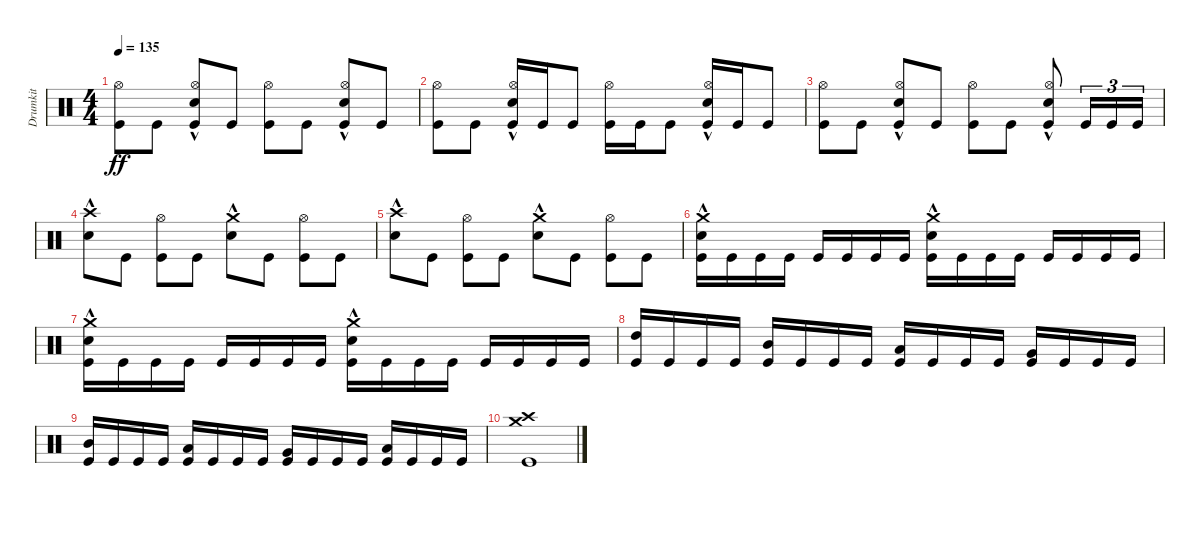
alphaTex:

\track ("Drumkit" "Drumkit") {instrument percussion}
\staff {score}
\articulation defaults
\ts (4 4)
\tempo 135
\clef neutral
\ks c
("Kick (hit)" "Hi-Hat (open)").8{dy ff} "Kick (hit)".8 ("Kick (hit)" "Hi-Hat (open)" "Snare (hit) 2"{hac}).8 "Kick (hit)".8 ("Kick (hit)" "Hi-Hat (open)").8 "Kick (hit)".8 ("Kick (hit)" "Hi-Hat (open)" "Snare (hit) 2"{hac}).8 "Kick (hit)".8 |
("Kick (hit)" "Hi-Hat (open)").8 "Kick (hit)".8 ("Kick (hit)" "Hi-Hat (open)" "Snare (hit) 2"{hac}).16 "Kick (hit)".16 "Kick (hit)".8 ("Kick (hit)" "Hi-Hat (open)").16 "Kick (hit)".16 "Kick (hit)".8 ("Kick (hit)" "Hi-Hat (open)" "Snare (hit) 2"{hac}).16 "Kick (hit)".16 "Kick (hit)".8 |
("Kick (hit)" "Hi-Hat (open)").8 "Kick (hit)".8 ("Kick (hit)" "Hi-Hat (open)" "Snare (hit) 2"{hac}).8 "Kick (hit)".8 ("Kick (hit)" "Hi-Hat (open)").8 "Kick (hit)".8 ("Kick (hit)" "Hi-Hat (open)" "Snare (hit) 2"{hac}).8 "Kick (hit)".16{tu (3 2)} "Kick (hit)".16{tu (3 2)} "Kick (hit)".16{tu (3 2)} |
("Snare (hit) 2"{hac} "Crash high (hit)").8 "Kick (hit)".8 ("Kick (hit)" "Hi-Hat (open)").8 "Kick (hit)".8 ("Snare (hit) 2"{hac} "Crash medium (hit)").8 "Kick (hit)".8 ("Kick (hit)" "Hi-Hat (open)").8 "Kick (hit)".8 |
("Snare (hit) 2"{hac} "Crash high (hit)").8 "Kick (hit)".8 ("Kick (hit)" "Hi-Hat (open)").8 "Kick (hit)".8 ("Snare (hit) 2"{hac} "Crash medium (hit)").8 "Kick (hit)".8 ("Kick (hit)" "Hi-Hat (open)").8 "Kick (hit)".8 |
("Kick (hit)" "Snare (hit) 2"{hac} "Crash medium (hit)").16 "Kick (hit)".16 "Kick (hit)".16 "Kick (hit)".16 "Kick (hit)".16 "Kick (hit)".16 "Kick (hit)".16 "Kick (hit)".16 ("Kick (hit)" "Snare (hit) 2"{hac} "Crash medium (hit)").16 "Kick (hit)".16 "Kick (hit)".16 "Kick (hit)".16 "Kick (hit)".16 "Kick (hit)".16 "Kick (hit)".16 "Kick (hit)".16 |
("Kick (hit)" "Snare (hit) 2"{hac} "Crash medium (hit)").16 "Kick (hit)".16 "Kick (hit)".16 "Kick (hit)".16 "Kick (hit)".16 "Kick (hit)".16 "Kick (hit)".16 "Kick (hit)".16 ("Kick (hit)" "Snare (hit) 2"{hac} "Crash medium (hit)").16 "Kick (hit)".16 "Kick (hit)".16 "Kick (hit)".16 "Kick (hit)".16 "Kick (hit)".16 "Kick (hit)".16 "Kick (hit)".16 |
("Kick (hit)" "High Tom (hit)").16 "Kick (hit)".16 "Kick (hit)".16 "Kick (hit)".16 ("Kick (hit)" "Mid Tom (hit)").16 "Kick (hit)".16 "Kick (hit)".16 "Kick (hit)".16 ("Kick (hit)" "Low Tom (hit)").16 "Kick (hit)".16 "Kick (hit)".16 "Kick (hit)".16 ("Kick (hit)" "Very Low Tom (hit)").16 "Kick (hit)".16 "Kick (hit)".16 "Kick (hit)".16 |
("Kick (hit)" "Mid Tom (hit)").16 "Kick (hit)".16 "Kick (hit)".16 "Kick (hit)".16 ("Kick (hit)" "Low Tom (hit)").16 "Kick (hit)".16 "Kick (hit)".16 "Kick (hit)".16 ("Kick (hit)" "Very Low Tom (hit)").16 "Kick (hit)".16 "Kick (hit)".16 "Kick (hit)".16 ("Kick (hit)" "Low Floor Tom (hit)").16 "Kick (hit)".16 "Kick (hit)".16 "Kick (hit)".16 |
("Kick (hit)" "Crash medium (hit)" "Crash high (hit)").1
